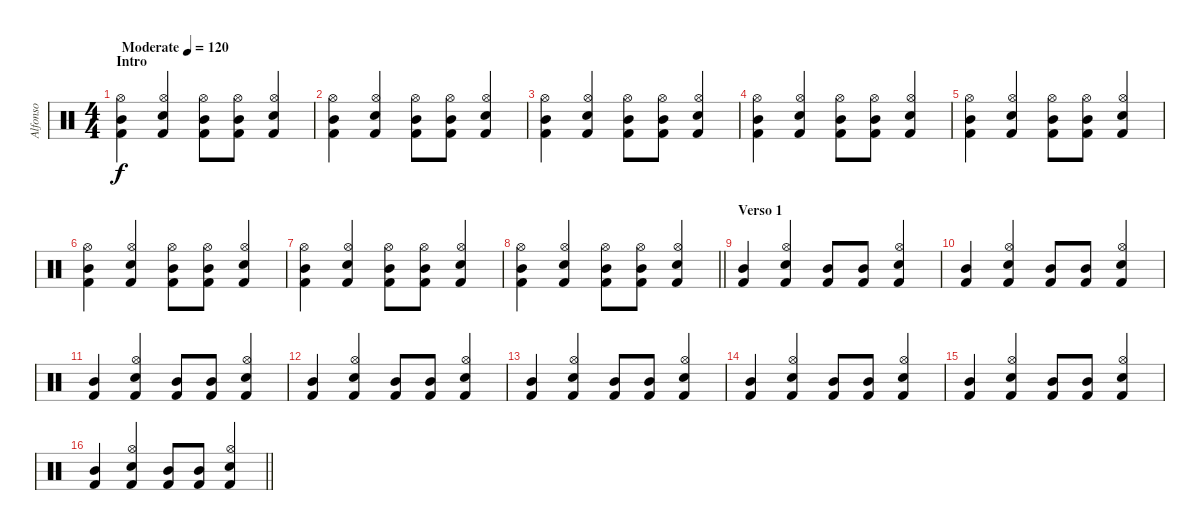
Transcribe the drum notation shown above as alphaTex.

\track ("Alfonso" "Alfonso") {instrument percussion}
\staff {score}
\articulation defaults
\ts (4 4)
\section ("" "Intro")
\tempo (120 "Moderate")
\clef neutral
\ks c
("Kick (hit) 2" "Mid Tom (hit)" "Hi-Hat (open)").4{dy f} ("Kick (hit) 2" "Snare (hit) 2" "Hi-Hat (open)").4 ("Kick (hit) 2" "Mid Tom (hit)" "Hi-Hat (open)").8 ("Kick (hit) 2" "Mid Tom (hit)" "Hi-Hat (open)").8 ("Kick (hit) 2" "Snare (hit) 2" "Hi-Hat (open)").4 |
("Kick (hit) 2" "Mid Tom (hit)" "Hi-Hat (open)").4 ("Kick (hit) 2" "Snare (hit) 2" "Hi-Hat (open)").4 ("Kick (hit) 2" "Mid Tom (hit)" "Hi-Hat (open)").8 ("Kick (hit) 2" "Mid Tom (hit)" "Hi-Hat (open)").8 ("Kick (hit) 2" "Snare (hit) 2" "Hi-Hat (open)").4 |
("Kick (hit) 2" "Mid Tom (hit)" "Hi-Hat (open)").4 ("Kick (hit) 2" "Snare (hit) 2" "Hi-Hat (open)").4 ("Kick (hit) 2" "Mid Tom (hit)" "Hi-Hat (open)").8 ("Kick (hit) 2" "Mid Tom (hit)" "Hi-Hat (open)").8 ("Kick (hit) 2" "Snare (hit) 2" "Hi-Hat (open)").4 |
("Kick (hit) 2" "Mid Tom (hit)" "Hi-Hat (open)").4 ("Kick (hit) 2" "Snare (hit) 2" "Hi-Hat (open)").4 ("Kick (hit) 2" "Mid Tom (hit)" "Hi-Hat (open)").8 ("Kick (hit) 2" "Mid Tom (hit)" "Hi-Hat (open)").8 ("Kick (hit) 2" "Snare (hit) 2" "Hi-Hat (open)").4 |
("Kick (hit) 2" "Mid Tom (hit)" "Hi-Hat (open)").4 ("Kick (hit) 2" "Snare (hit) 2" "Hi-Hat (open)").4 ("Kick (hit) 2" "Mid Tom (hit)" "Hi-Hat (open)").8 ("Kick (hit) 2" "Mid Tom (hit)" "Hi-Hat (open)").8 ("Kick (hit) 2" "Snare (hit) 2" "Hi-Hat (open)").4 |
("Kick (hit) 2" "Mid Tom (hit)" "Hi-Hat (open)").4 ("Kick (hit) 2" "Snare (hit) 2" "Hi-Hat (open)").4 ("Kick (hit) 2" "Mid Tom (hit)" "Hi-Hat (open)").8 ("Kick (hit) 2" "Mid Tom (hit)" "Hi-Hat (open)").8 ("Kick (hit) 2" "Snare (hit) 2" "Hi-Hat (open)").4 |
("Kick (hit) 2" "Mid Tom (hit)" "Hi-Hat (open)").4 ("Kick (hit) 2" "Snare (hit) 2" "Hi-Hat (open)").4 ("Kick (hit) 2" "Mid Tom (hit)" "Hi-Hat (open)").8 ("Kick (hit) 2" "Mid Tom (hit)" "Hi-Hat (open)").8 ("Kick (hit) 2" "Snare (hit) 2" "Hi-Hat (open)").4 |
\barLineRight lightlight
("Kick (hit) 2" "Mid Tom (hit)" "Hi-Hat (open)").4 ("Kick (hit) 2" "Snare (hit) 2" "Hi-Hat (open)").4 ("Kick (hit) 2" "Mid Tom (hit)" "Hi-Hat (open)").8 ("Kick (hit) 2" "Mid Tom (hit)" "Hi-Hat (open)").8 ("Kick (hit) 2" "Snare (hit) 2" "Hi-Hat (open)").4 |
\section ("" "Verso 1")
("Kick (hit) 2" "Mid Tom (hit)").4 ("Kick (hit) 2" "Snare (hit) 2" "Hi-Hat (open)").4 ("Kick (hit) 2" "Mid Tom (hit)").8 ("Kick (hit) 2" "Mid Tom (hit)").8 ("Kick (hit) 2" "Snare (hit) 2" "Hi-Hat (open)").4 |
("Kick (hit) 2" "Mid Tom (hit)").4 ("Kick (hit) 2" "Snare (hit) 2" "Hi-Hat (open)").4 ("Kick (hit) 2" "Mid Tom (hit)").8 ("Kick (hit) 2" "Mid Tom (hit)").8 ("Kick (hit) 2" "Snare (hit) 2" "Hi-Hat (open)").4 |
("Kick (hit) 2" "Mid Tom (hit)").4 ("Kick (hit) 2" "Snare (hit) 2" "Hi-Hat (open)").4 ("Kick (hit) 2" "Mid Tom (hit)").8 ("Kick (hit) 2" "Mid Tom (hit)").8 ("Kick (hit) 2" "Snare (hit) 2" "Hi-Hat (open)").4 |
("Kick (hit) 2" "Mid Tom (hit)").4 ("Kick (hit) 2" "Snare (hit) 2" "Hi-Hat (open)").4 ("Kick (hit) 2" "Mid Tom (hit)").8 ("Kick (hit) 2" "Mid Tom (hit)").8 ("Kick (hit) 2" "Snare (hit) 2" "Hi-Hat (open)").4 |
("Kick (hit) 2" "Mid Tom (hit)").4 ("Kick (hit) 2" "Snare (hit) 2" "Hi-Hat (open)").4 ("Kick (hit) 2" "Mid Tom (hit)").8 ("Kick (hit) 2" "Mid Tom (hit)").8 ("Kick (hit) 2" "Snare (hit) 2" "Hi-Hat (open)").4 |
("Kick (hit) 2" "Mid Tom (hit)").4 ("Kick (hit) 2" "Snare (hit) 2" "Hi-Hat (open)").4 ("Kick (hit) 2" "Mid Tom (hit)").8 ("Kick (hit) 2" "Mid Tom (hit)").8 ("Kick (hit) 2" "Snare (hit) 2" "Hi-Hat (open)").4 |
("Kick (hit) 2" "Mid Tom (hit)").4 ("Kick (hit) 2" "Snare (hit) 2" "Hi-Hat (open)").4 ("Kick (hit) 2" "Mid Tom (hit)").8 ("Kick (hit) 2" "Mid Tom (hit)").8 ("Kick (hit) 2" "Snare (hit) 2" "Hi-Hat (open)").4 |
\barLineRight lightlight
("Kick (hit) 2" "Mid Tom (hit)").4 ("Kick (hit) 2" "Snare (hit) 2" "Hi-Hat (open)").4 ("Kick (hit) 2" "Mid Tom (hit)").8 ("Kick (hit) 2" "Mid Tom (hit)").8 ("Kick (hit) 2" "Snare (hit) 2" "Hi-Hat (open)").4
